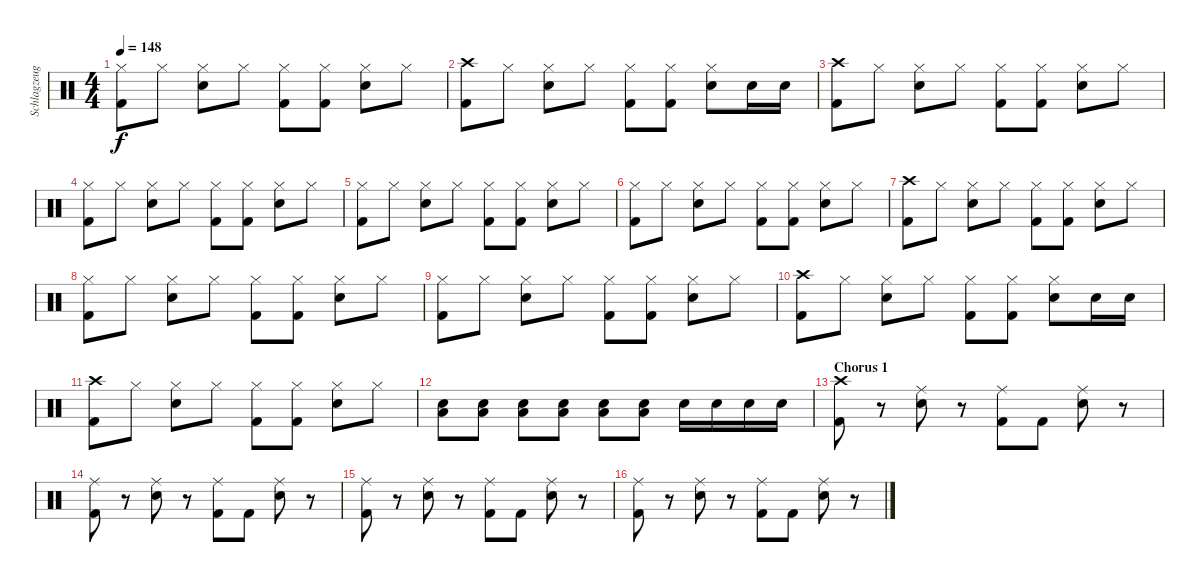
\track ("Schlagzeug" "Schlagzeug") {instrument percussion}
\staff {score}
\articulation defaults
\ts (4 4)
\tempo 148
\clef neutral
\ks c
("Hi-Hat (closed)" "Kick (hit) 2").8{dy f} "Hi-Hat (closed)".8 ("Hi-Hat (closed)" "Electric Snare (hit)").8 "Hi-Hat (closed)".8 ("Hi-Hat (closed)" "Kick (hit) 2").8 ("Hi-Hat (closed)" "Kick (hit) 2").8 ("Hi-Hat (closed)" "Electric Snare (hit)").8 "Hi-Hat (closed)".8 |
("Crash high (hit)" "Kick (hit) 2").8 "Hi-Hat (closed)".8 ("Hi-Hat (closed)" "Electric Snare (hit)").8 "Hi-Hat (closed)".8 ("Hi-Hat (closed)" "Kick (hit) 2").8 ("Hi-Hat (closed)" "Kick (hit) 2").8 ("Hi-Hat (closed)" "Electric Snare (hit)").8 "Electric Snare (hit)".16 "Electric Snare (hit)".16 |
("Crash high (hit)" "Kick (hit) 2").8 "Hi-Hat (closed)".8 ("Hi-Hat (closed)" "Electric Snare (hit)").8 "Hi-Hat (closed)".8 ("Hi-Hat (closed)" "Kick (hit) 2").8 ("Hi-Hat (closed)" "Kick (hit) 2").8 ("Hi-Hat (closed)" "Electric Snare (hit)").8 "Hi-Hat (closed)".8 |
("Hi-Hat (closed)" "Kick (hit) 2").8 "Hi-Hat (closed)".8 ("Hi-Hat (closed)" "Electric Snare (hit)").8 "Hi-Hat (closed)".8 ("Hi-Hat (closed)" "Kick (hit) 2").8 ("Hi-Hat (closed)" "Kick (hit) 2").8 ("Hi-Hat (closed)" "Electric Snare (hit)").8 "Hi-Hat (closed)".8 |
("Hi-Hat (closed)" "Kick (hit) 2").8 "Hi-Hat (closed)".8 ("Hi-Hat (closed)" "Electric Snare (hit)").8 "Hi-Hat (closed)".8 ("Hi-Hat (closed)" "Kick (hit) 2").8 ("Hi-Hat (closed)" "Kick (hit) 2").8 ("Hi-Hat (closed)" "Electric Snare (hit)").8 "Hi-Hat (closed)".8 |
("Hi-Hat (closed)" "Kick (hit) 2").8 "Hi-Hat (closed)".8 ("Hi-Hat (closed)" "Electric Snare (hit)").8 "Hi-Hat (closed)".8 ("Hi-Hat (closed)" "Kick (hit) 2").8 ("Hi-Hat (closed)" "Kick (hit) 2").8 ("Hi-Hat (closed)" "Electric Snare (hit)").8 "Hi-Hat (closed)".8 |
("Crash high (hit)" "Kick (hit) 2").8 "Hi-Hat (closed)".8 ("Hi-Hat (closed)" "Electric Snare (hit)").8 "Hi-Hat (closed)".8 ("Hi-Hat (closed)" "Kick (hit) 2").8 ("Hi-Hat (closed)" "Kick (hit) 2").8 ("Hi-Hat (closed)" "Electric Snare (hit)").8 "Hi-Hat (closed)".8 |
("Hi-Hat (closed)" "Kick (hit) 2").8 "Hi-Hat (closed)".8 ("Hi-Hat (closed)" "Electric Snare (hit)").8 "Hi-Hat (closed)".8 ("Hi-Hat (closed)" "Kick (hit) 2").8 ("Hi-Hat (closed)" "Kick (hit) 2").8 ("Hi-Hat (closed)" "Electric Snare (hit)").8 "Hi-Hat (closed)".8 |
("Hi-Hat (closed)" "Kick (hit) 2").8 "Hi-Hat (closed)".8 ("Hi-Hat (closed)" "Electric Snare (hit)").8 "Hi-Hat (closed)".8 ("Hi-Hat (closed)" "Kick (hit) 2").8 ("Hi-Hat (closed)" "Kick (hit) 2").8 ("Hi-Hat (closed)" "Electric Snare (hit)").8 "Hi-Hat (closed)".8 |
("Crash high (hit)" "Kick (hit) 2").8 "Hi-Hat (closed)".8 ("Hi-Hat (closed)" "Electric Snare (hit)").8 "Hi-Hat (closed)".8 ("Hi-Hat (closed)" "Kick (hit) 2").8 ("Hi-Hat (closed)" "Kick (hit) 2").8 ("Hi-Hat (closed)" "Electric Snare (hit)").8 "Electric Snare (hit)".16 "Electric Snare (hit)".16 |
("Crash high (hit)" "Kick (hit) 2").8 "Hi-Hat (closed)".8 ("Hi-Hat (closed)" "Electric Snare (hit)").8 "Hi-Hat (closed)".8 ("Hi-Hat (closed)" "Kick (hit) 2").8 ("Hi-Hat (closed)" "Kick (hit) 2").8 ("Hi-Hat (closed)" "Electric Snare (hit)").8 "Hi-Hat (closed)".8 |
("Electric Snare (hit)" "Low Floor Tom (hit)").8 ("Electric Snare (hit)" "Low Floor Tom (hit)").8 ("Electric Snare (hit)" "Low Floor Tom (hit)").8 ("Electric Snare (hit)" "Low Floor Tom (hit)").8 ("Electric Snare (hit)" "Low Floor Tom (hit)").8 ("Electric Snare (hit)" "Low Floor Tom (hit)").8 "Electric Snare (hit)".16 "Electric Snare (hit)".16 "Electric Snare (hit)".16 "Electric Snare (hit)".16 |
\section ("" "Chorus 1")
("Crash high (hit)" "Kick (hit) 2").8 r.8 ("Ride (middle)" "Electric Snare (hit)").8 r.8 ("Ride (middle)" "Kick (hit) 2").8 "Kick (hit) 2".8 ("Ride (middle)" "Electric Snare (hit)").8 r.8 |
("Ride (middle)" "Kick (hit) 2").8 r.8 ("Ride (middle)" "Electric Snare (hit)").8 r.8 ("Ride (middle)" "Kick (hit) 2").8 "Kick (hit) 2".8 ("Ride (middle)" "Electric Snare (hit)").8 r.8 |
("Ride (middle)" "Kick (hit) 2").8 r.8 ("Ride (middle)" "Electric Snare (hit)").8 r.8 ("Ride (middle)" "Kick (hit) 2").8 "Kick (hit) 2".8 ("Ride (middle)" "Electric Snare (hit)").8 r.8 |
("Ride (middle)" "Kick (hit) 2").8 r.8 ("Ride (middle)" "Electric Snare (hit)").8 r.8 ("Ride (middle)" "Kick (hit) 2").8 "Kick (hit) 2".8 ("Ride (middle)" "Electric Snare (hit)").8 r.8
